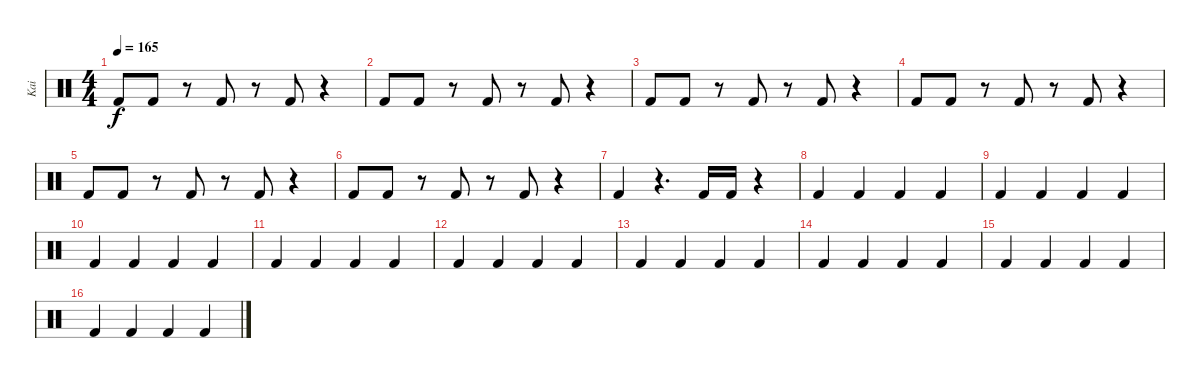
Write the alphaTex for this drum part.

\track ("Kai" "Kai") {instrument percussion}
\staff {score}
\articulation defaults
\ts (4 4)
\tempo 165
\clef neutral
\ks c "Kick (hit) 2".8{dy f} "Kick (hit) 2".8
r.8 "Kick (hit) 2".8 r.8 "Kick (hit) 2".8 r.4 |
"Kick (hit) 2".8 "Kick (hit) 2".8 r.8 "Kick (hit) 2".8 r.8 "Kick (hit) 2".8 r.4 |
"Kick (hit) 2".8 "Kick (hit) 2".8 r.8 "Kick (hit) 2".8 r.8 "Kick (hit) 2".8 r.4 |
"Kick (hit) 2".8 "Kick (hit) 2".8 r.8 "Kick (hit) 2".8 r.8 "Kick (hit) 2".8 r.4 |
"Kick (hit) 2".8 "Kick (hit) 2".8 r.8 "Kick (hit) 2".8 r.8 "Kick (hit) 2".8 r.4 |
"Kick (hit) 2".8 "Kick (hit) 2".8 r.8 "Kick (hit) 2".8 r.8 "Kick (hit) 2".8 r.4 |
"Kick (hit) 2".4 r.4{d} "Kick (hit) 2".16 "Kick (hit) 2".16 r.4 |
"Kick (hit) 2".4 "Kick (hit) 2".4 "Kick (hit) 2".4 "Kick (hit) 2".4 |
"Kick (hit) 2".4 "Kick (hit) 2".4 "Kick (hit) 2".4 "Kick (hit) 2".4 |
"Kick (hit) 2".4 "Kick (hit) 2".4 "Kick (hit) 2".4 "Kick (hit) 2".4 |
"Kick (hit) 2".4 "Kick (hit) 2".4 "Kick (hit) 2".4 "Kick (hit) 2".4 |
"Kick (hit) 2".4 "Kick (hit) 2".4 "Kick (hit) 2".4 "Kick (hit) 2".4 |
"Kick (hit) 2".4 "Kick (hit) 2".4 "Kick (hit) 2".4 "Kick (hit) 2".4 |
"Kick (hit) 2".4 "Kick (hit) 2".4 "Kick (hit) 2".4 "Kick (hit) 2".4 |
"Kick (hit) 2".4 "Kick (hit) 2".4 "Kick (hit) 2".4 "Kick (hit) 2".4 |
"Kick (hit) 2".4 "Kick (hit) 2".4 "Kick (hit) 2".4 "Kick (hit) 2".4
